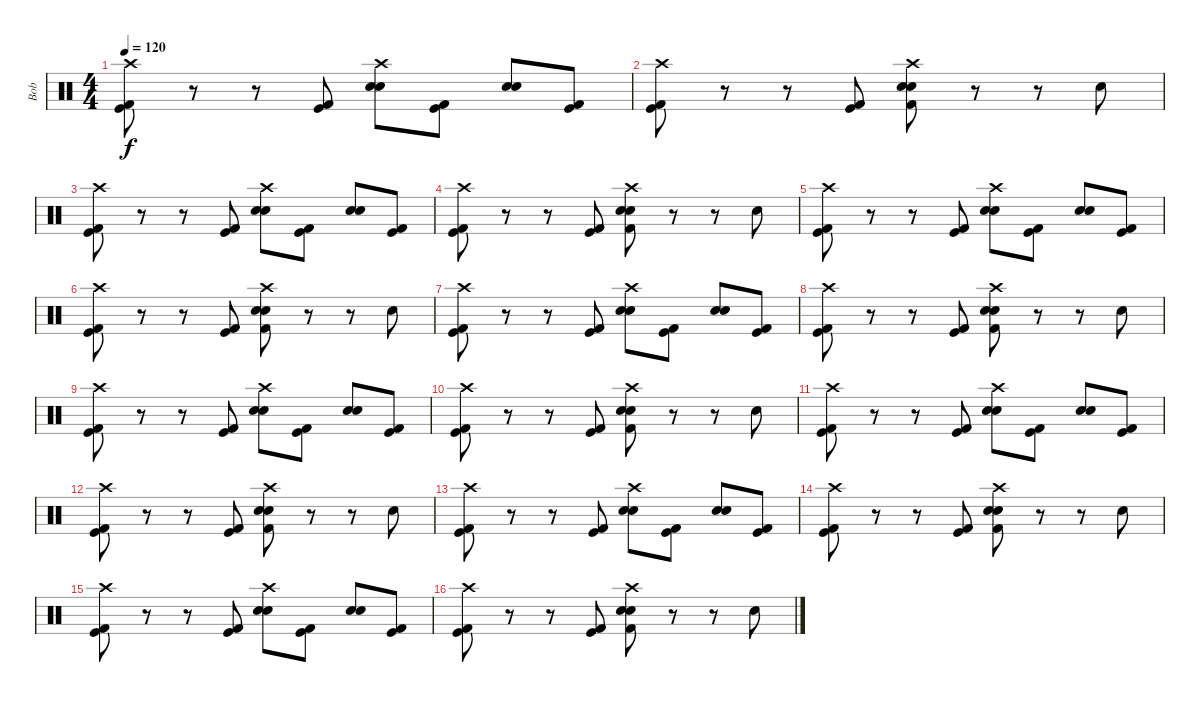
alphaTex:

\track ("Bob" "Bob") {instrument percussion}
\staff {score}
\articulation defaults
\ts (4 4)
\tempo 120
\clef neutral
\ks c
("Crash high (hit)" "Kick (hit)" "Kick (hit) 2").8{dy f} r.8 r.8 ("Kick (hit)" "Kick (hit) 2").8 ("Crash high (hit)" "Electric Snare (hit)" "Snare (hit) 2").8 ("Kick (hit)" "Kick (hit) 2").8 ("Electric Snare (hit)" "Snare (hit) 2").8 ("Kick (hit)" "Kick (hit) 2").8 |
("Crash high (hit)" "Kick (hit)" "Kick (hit) 2").8 r.8 r.8 ("Kick (hit)" "Kick (hit) 2").8 ("Crash high (hit)" "Electric Snare (hit)" "Snare (hit) 2" "Kick (hit) 2").8 r.8 r.8 "Snare (hit) 2".8 |
("Crash high (hit)" "Kick (hit)" "Kick (hit) 2").8 r.8 r.8 ("Kick (hit)" "Kick (hit) 2").8 ("Crash high (hit)" "Electric Snare (hit)" "Snare (hit) 2").8 ("Kick (hit)" "Kick (hit) 2").8 ("Electric Snare (hit)" "Snare (hit) 2").8 ("Kick (hit)" "Kick (hit) 2").8 |
("Crash high (hit)" "Kick (hit)" "Kick (hit) 2").8 r.8 r.8 ("Kick (hit)" "Kick (hit) 2").8 ("Crash high (hit)" "Electric Snare (hit)" "Snare (hit) 2" "Kick (hit) 2").8 r.8 r.8 "Snare (hit) 2".8 |
("Crash high (hit)" "Kick (hit)" "Kick (hit) 2").8 r.8 r.8 ("Kick (hit)" "Kick (hit) 2").8 ("Crash high (hit)" "Electric Snare (hit)" "Snare (hit) 2").8 ("Kick (hit)" "Kick (hit) 2").8 ("Electric Snare (hit)" "Snare (hit) 2").8 ("Kick (hit)" "Kick (hit) 2").8 |
("Crash high (hit)" "Kick (hit)" "Kick (hit) 2").8 r.8 r.8 ("Kick (hit)" "Kick (hit) 2").8 ("Crash high (hit)" "Electric Snare (hit)" "Snare (hit) 2" "Kick (hit) 2").8 r.8 r.8 "Snare (hit) 2".8 |
("Crash high (hit)" "Kick (hit)" "Kick (hit) 2").8 r.8 r.8 ("Kick (hit)" "Kick (hit) 2").8 ("Crash high (hit)" "Electric Snare (hit)" "Snare (hit) 2").8 ("Kick (hit)" "Kick (hit) 2").8 ("Electric Snare (hit)" "Snare (hit) 2").8 ("Kick (hit)" "Kick (hit) 2").8 |
("Crash high (hit)" "Kick (hit)" "Kick (hit) 2").8 r.8 r.8 ("Kick (hit)" "Kick (hit) 2").8 ("Crash high (hit)" "Electric Snare (hit)" "Snare (hit) 2" "Kick (hit) 2").8 r.8 r.8 "Snare (hit) 2".8 |
("Crash high (hit)" "Kick (hit)" "Kick (hit) 2").8 r.8 r.8 ("Kick (hit)" "Kick (hit) 2").8 ("Crash high (hit)" "Electric Snare (hit)" "Snare (hit) 2").8 ("Kick (hit)" "Kick (hit) 2").8 ("Electric Snare (hit)" "Snare (hit) 2").8 ("Kick (hit)" "Kick (hit) 2").8 |
("Crash high (hit)" "Kick (hit)" "Kick (hit) 2").8 r.8 r.8 ("Kick (hit)" "Kick (hit) 2").8 ("Crash high (hit)" "Electric Snare (hit)" "Snare (hit) 2" "Kick (hit) 2").8 r.8 r.8 "Snare (hit) 2".8 |
("Crash high (hit)" "Kick (hit)" "Kick (hit) 2").8 r.8 r.8 ("Kick (hit)" "Kick (hit) 2").8 ("Crash high (hit)" "Electric Snare (hit)" "Snare (hit) 2").8 ("Kick (hit)" "Kick (hit) 2").8 ("Electric Snare (hit)" "Snare (hit) 2").8 ("Kick (hit)" "Kick (hit) 2").8 |
("Crash high (hit)" "Kick (hit)" "Kick (hit) 2").8 r.8 r.8 ("Kick (hit)" "Kick (hit) 2").8 ("Crash high (hit)" "Electric Snare (hit)" "Snare (hit) 2" "Kick (hit) 2").8 r.8 r.8 "Snare (hit) 2".8 |
("Crash high (hit)" "Kick (hit)" "Kick (hit) 2").8 r.8 r.8 ("Kick (hit)" "Kick (hit) 2").8 ("Crash high (hit)" "Electric Snare (hit)" "Snare (hit) 2").8 ("Kick (hit)" "Kick (hit) 2").8 ("Electric Snare (hit)" "Snare (hit) 2").8 ("Kick (hit)" "Kick (hit) 2").8 |
("Crash high (hit)" "Kick (hit)" "Kick (hit) 2").8 r.8 r.8 ("Kick (hit)" "Kick (hit) 2").8 ("Crash high (hit)" "Electric Snare (hit)" "Snare (hit) 2" "Kick (hit) 2").8 r.8 r.8 "Snare (hit) 2".8 |
("Crash high (hit)" "Kick (hit)" "Kick (hit) 2").8 r.8 r.8 ("Kick (hit)" "Kick (hit) 2").8 ("Crash high (hit)" "Electric Snare (hit)" "Snare (hit) 2").8 ("Kick (hit)" "Kick (hit) 2").8 ("Electric Snare (hit)" "Snare (hit) 2").8 ("Kick (hit)" "Kick (hit) 2").8 |
("Crash high (hit)" "Kick (hit)" "Kick (hit) 2").8 r.8 r.8 ("Kick (hit)" "Kick (hit) 2").8 ("Crash high (hit)" "Electric Snare (hit)" "Snare (hit) 2" "Kick (hit) 2").8 r.8 r.8 "Snare (hit) 2".8
